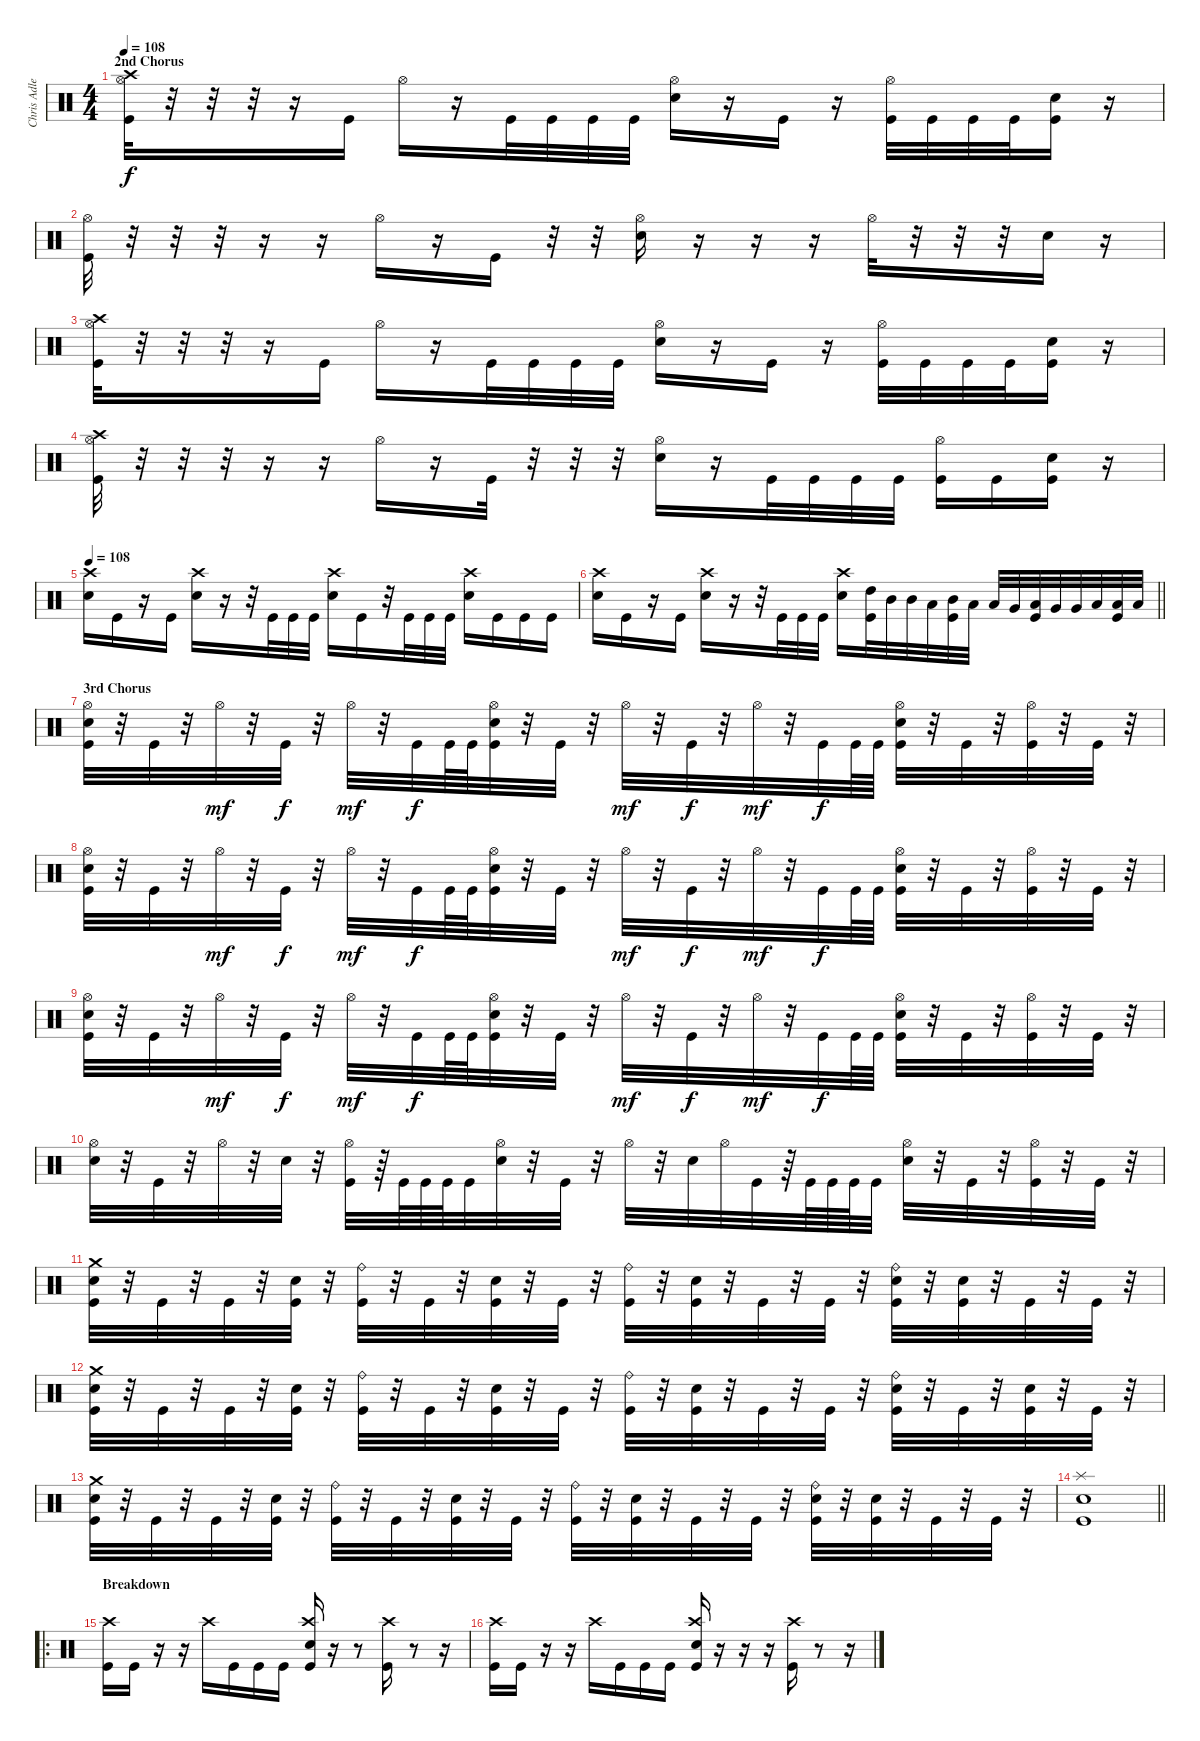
\track ("Chris Adler (Drumkit)" "Chris Adle") {instrument percussion}
\staff {score}
\articulation defaults
\ts (4 4)
\section ("" "2nd Chorus")
\tempo 108
\clef neutral
\ks c
("Kick (hit)" "Crash high (hit)" "Hi-Hat (open)").32{dy f} r.32 r.32 r.32 r.16 "Kick (hit)".16 "Hi-Hat (open)".16 r.16 "Kick (hit)".32 "Kick (hit)".32 "Kick (hit)".32 "Kick (hit)".32 ("Snare (hit) 2" "Hi-Hat (open)").16 r.16 "Kick (hit)".16 r.16 ("Kick (hit)" "Hi-Hat (open)").32 "Kick (hit)".32 "Kick (hit)".32 "Kick (hit)".32 ("Kick (hit)" "Snare (hit) 2").16 r.16 |
("Kick (hit)" "Hi-Hat (open)").32 r.32 r.32 r.32 r.16 r.16 "Hi-Hat (open)".16 r.16 "Kick (hit)".16 r.32 r.32 ("Snare (hit) 2" "Hi-Hat (open)").16 r.16 r.16 r.16 "Hi-Hat (open)".32 r.32 r.32 r.32 "Snare (hit) 2".16 r.16 |
("Kick (hit)" "Crash high (hit)" "Hi-Hat (open)").32 r.32 r.32 r.32 r.16 "Kick (hit)".16 "Hi-Hat (open)".16 r.16 "Kick (hit)".32 "Kick (hit)".32 "Kick (hit)".32 "Kick (hit)".32 ("Snare (hit) 2" "Hi-Hat (open)").16 r.16 "Kick (hit)".16 r.16 ("Kick (hit)" "Hi-Hat (open)").32 "Kick (hit)".32 "Kick (hit)".32 "Kick (hit)".32 ("Kick (hit)" "Snare (hit) 2").16 r.16 |
("Kick (hit)" "Crash high (hit)" "Hi-Hat (open)").32 r.32 r.32 r.32 r.16 r.16 "Hi-Hat (open)".16 r.16 "Kick (hit)".32 r.32 r.32 r.32 ("Snare (hit) 2" "Hi-Hat (open)").16 r.16 "Kick (hit)".32 "Kick (hit)".32 "Kick (hit)".32 "Kick (hit)".32 ("Kick (hit)" "Hi-Hat (open)").16 "Kick (hit)".16 ("Kick (hit)" "Snare (hit) 2").16 r.16 |
\tempo 108
("Snare (hit) 2" "Crash high (hit)").16 "Kick (hit)".16 r.16 "Kick (hit)".16 ("Snare (hit) 2" "Crash high (hit)").16 r.16 r.32 "Kick (hit)".32 "Kick (hit)".32 "Kick (hit)".32 ("Snare (hit) 2" "Crash high (hit)").16 "Kick (hit)".16 r.32 "Kick (hit)".32 "Kick (hit)".32 "Kick (hit)".32 ("Snare (hit) 2" "Crash high (hit)").16 "Kick (hit)".16 "Kick (hit)".16 "Kick (hit)".16 |
\barLineRight lightlight
("Snare (hit) 2" "Crash high (hit)").16 "Kick (hit)".16 r.16 "Kick (hit)".16 ("Snare (hit) 2" "Crash high (hit)").16 r.16 r.32 "Kick (hit)".32 "Kick (hit)".32 "Kick (hit)".32 ("Snare (hit) 2" "Crash high (hit)").16 ("Kick (hit)" "High Tom (hit)").32 "Mid Tom (hit)".32 "Mid Tom (hit)".32 "Low Tom (hit)".32 ("Kick (hit)" "Mid Tom (hit)").32 "Low Tom (hit)".32 "Low Tom (hit)".32 "Very Low Tom (hit)".32 ("Kick (hit)" "Low Tom (hit)").32 "Very Low Tom (hit)".32 "Very Low Tom (hit)".32 "Low Floor Tom (hit)".32 ("Kick (hit)" "Low Floor Tom (hit)").32 "Low Floor Tom (hit)".32 |
\section ("" "3rd Chorus")
("Kick (hit)" "Snare (hit) 2" "Hi-Hat (open)").32 r.32 "Kick (hit)".32 r.32 "Hi-Hat (open)".32{dy mf} r.32 "Kick (hit)".32{dy f} r.32 "Hi-Hat (open)".32{dy mf} r.32 "Kick (hit)".32{dy f} "Kick (hit)".64 "Kick (hit)".64 ("Kick (hit)" "Snare (hit) 2" "Hi-Hat (open)").32 r.32 "Kick (hit)".32 r.32 "Hi-Hat (open)".32{dy mf} r.32 "Kick (hit)".32{dy f} r.32 "Hi-Hat (open)".32{dy mf} r.32 "Kick (hit)".32{dy f} "Kick (hit)".64 "Kick (hit)".64 ("Kick (hit)" "Snare (hit) 2" "Hi-Hat (open)").32 r.32 "Kick (hit)".32 r.32 ("Kick (hit)" "Hi-Hat (open)").32 r.32 "Kick (hit)".32 r.32 |
("Kick (hit)" "Snare (hit) 2" "Hi-Hat (open)").32 r.32 "Kick (hit)".32 r.32 "Hi-Hat (open)".32{dy mf} r.32 "Kick (hit)".32{dy f} r.32 "Hi-Hat (open)".32{dy mf} r.32 "Kick (hit)".32{dy f} "Kick (hit)".64 "Kick (hit)".64 ("Kick (hit)" "Snare (hit) 2" "Hi-Hat (open)").32 r.32 "Kick (hit)".32 r.32 "Hi-Hat (open)".32{dy mf} r.32 "Kick (hit)".32{dy f} r.32 "Hi-Hat (open)".32{dy mf} r.32 "Kick (hit)".32{dy f} "Kick (hit)".64 "Kick (hit)".64 ("Kick (hit)" "Snare (hit) 2" "Hi-Hat (open)").32 r.32 "Kick (hit)".32 r.32 ("Kick (hit)" "Hi-Hat (open)").32 r.32 "Kick (hit)".32 r.32 |
("Kick (hit)" "Snare (hit) 2" "Hi-Hat (open)").32 r.32 "Kick (hit)".32 r.32 "Hi-Hat (open)".32{dy mf} r.32 "Kick (hit)".32{dy f} r.32 "Hi-Hat (open)".32{dy mf} r.32 "Kick (hit)".32{dy f} "Kick (hit)".64 "Kick (hit)".64 ("Kick (hit)" "Snare (hit) 2" "Hi-Hat (open)").32 r.32 "Kick (hit)".32 r.32 "Hi-Hat (open)".32{dy mf} r.32 "Kick (hit)".32{dy f} r.32 "Hi-Hat (open)".32{dy mf} r.32 "Kick (hit)".32{dy f} "Kick (hit)".64 "Kick (hit)".64 ("Kick (hit)" "Snare (hit) 2" "Hi-Hat (open)").32 r.32 "Kick (hit)".32 r.32 ("Kick (hit)" "Hi-Hat (open)").32 r.32 "Kick (hit)".32 r.32 |
("Snare (hit) 2" "Hi-Hat (open)").32 r.32 "Kick (hit)".32 r.32 "Hi-Hat (open)".32 r.32 "Snare (hit) 2".32 r.32 ("Kick (hit)" "Hi-Hat (open)").32 r.64 "Kick (hit)".64 "Kick (hit)".64 "Kick (hit)".64 "Kick (hit)".32 ("Snare (hit) 2" "Hi-Hat (open)").32 r.32 "Kick (hit)".32 r.32 "Hi-Hat (open)".32 r.32 "Snare (hit) 2".32 "Hi-Hat (open)".32 "Kick (hit)".32 r.64 "Kick (hit)".64 "Kick (hit)".64 "Kick (hit)".64 "Kick (hit)".32 ("Snare (hit) 2" "Hi-Hat (open)").32 r.32 "Kick (hit)".32 r.32 ("Kick (hit)" "Hi-Hat (open)").32 r.32 "Kick (hit)".32 r.32 |
("Kick (hit)" "Snare (hit) 2" "Crash medium (hit)").32 r.32 "Kick (hit)".32 r.32 "Kick (hit)".32 r.32 ("Kick (hit)" "Snare (hit) 2").32 r.32 ("Kick (hit)" "Ride (bell)").32 r.32 "Kick (hit)".32 r.32 ("Kick (hit)" "Snare (hit) 2").32 r.32 "Kick (hit)".32 r.32 ("Kick (hit)" "Ride (bell)").32 r.32 ("Kick (hit)" "Snare (hit) 2").32 r.32 "Kick (hit)".32 r.32 "Kick (hit)".32 r.32 ("Kick (hit)" "Snare (hit) 2" "Ride (bell)").32 r.32 ("Kick (hit)" "Snare (hit) 2").32 r.32 "Kick (hit)".32 r.32 "Kick (hit)".32 r.32 |
("Kick (hit)" "Snare (hit) 2" "Crash medium (hit)").32 r.32 "Kick (hit)".32 r.32 "Kick (hit)".32 r.32 ("Kick (hit)" "Snare (hit) 2").32 r.32 ("Kick (hit)" "Ride (bell)").32 r.32 "Kick (hit)".32 r.32 ("Kick (hit)" "Snare (hit) 2").32 r.32 "Kick (hit)".32 r.32 ("Kick (hit)" "Ride (bell)").32 r.32 ("Kick (hit)" "Snare (hit) 2").32 r.32 "Kick (hit)".32 r.32 "Kick (hit)".32 r.32 ("Kick (hit)" "Snare (hit) 2" "Ride (bell)").32 r.32 "Kick (hit)".32 r.32 ("Kick (hit)" "Snare (hit) 2").32 r.32 "Kick (hit)".32 r.32 |
("Kick (hit)" "Snare (hit) 2" "Crash medium (hit)").32 r.32 "Kick (hit)".32 r.32 "Kick (hit)".32 r.32 ("Kick (hit)" "Snare (hit) 2").32 r.32 ("Kick (hit)" "Ride (bell)").32 r.32 "Kick (hit)".32 r.32 ("Kick (hit)" "Snare (hit) 2").32 r.32 "Kick (hit)".32 r.32 ("Kick (hit)" "Ride (bell)").32 r.32 ("Kick (hit)" "Snare (hit) 2").32 r.32 "Kick (hit)".32 r.32 "Kick (hit)".32 r.32 ("Kick (hit)" "Snare (hit) 2" "Ride (bell)").32 r.32 ("Kick (hit)" "Snare (hit) 2").32 r.32 "Kick (hit)".32 r.32 "Kick (hit)".32 r.32 |
\barLineRight lightlight
("Kick (hit)" "Snare (hit) 2" "Splash (hit)").1 |
\ro
\section ("" "Breakdown")
("Kick (hit)" "Crash high (hit)").16 "Kick (hit)".16 r.16 r.16 "Crash high (hit)".16 "Kick (hit)".16 "Kick (hit)".16 "Kick (hit)".16 ("Kick (hit)" "Snare (hit) 2" "Crash high (hit)").16 r.16 r.8 ("Kick (hit)" "Crash high (hit)").16 r.8 r.16 |
("Kick (hit)" "Crash high (hit)").16 "Kick (hit)".16 r.16 r.16 "Crash high (hit)".16 "Kick (hit)".16 "Kick (hit)".16 "Kick (hit)".16 ("Kick (hit)" "Snare (hit) 2" "Crash high (hit)").16 r.16 r.16 r.16 ("Kick (hit)" "Crash high (hit)").16 r.8 r.16
